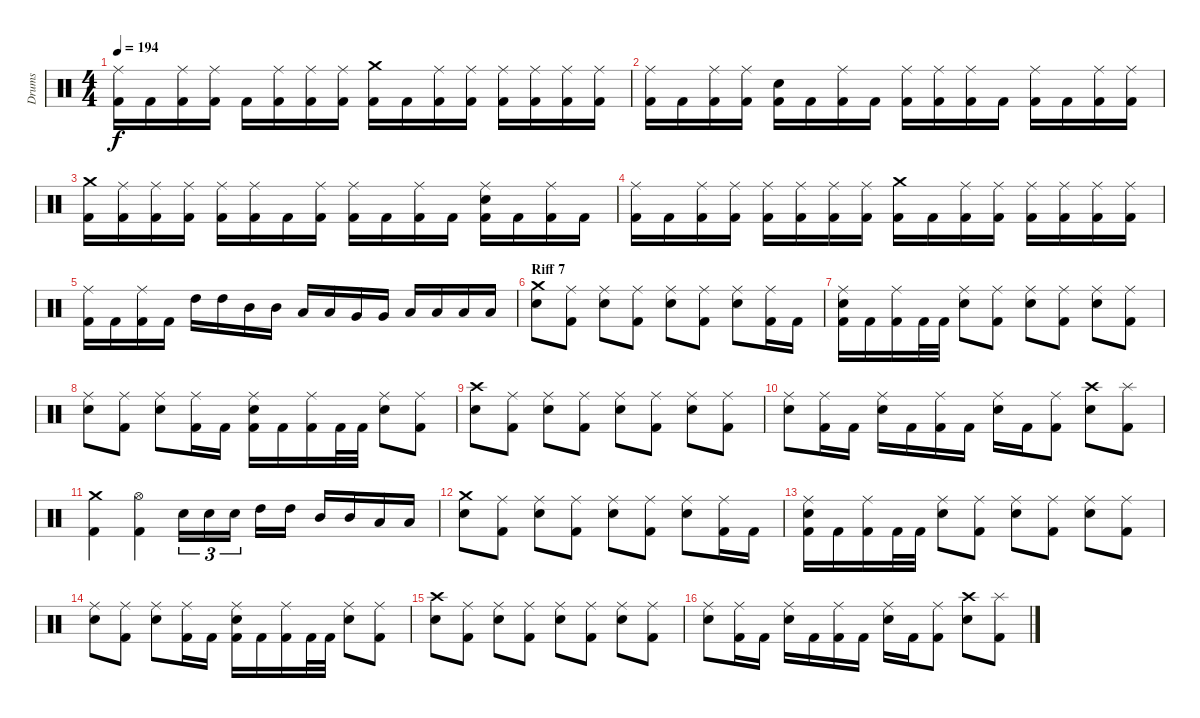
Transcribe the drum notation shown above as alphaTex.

\track ("Drums" "Drums") {instrument percussion}
\staff {score}
\articulation defaults
\ts (4 4)
\tempo 194
\clef neutral
\ks c
("Ride (middle)" "Kick (hit) 2").16{dy f} "Kick (hit) 2".16 ("Ride (middle)" "Kick (hit) 2").16 ("Ride (middle)" "Kick (hit) 2").16 "Kick (hit) 2".16 ("Ride (middle)" "Kick (hit) 2").16 ("Ride (middle)" "Kick (hit) 2").16 ("Ride (middle)" "Kick (hit) 2").16 ("Crash medium (hit)" "Kick (hit) 2").16 "Kick (hit) 2".16 ("Ride (middle)" "Kick (hit) 2").16 ("Ride (middle)" "Kick (hit) 2").16 ("Ride (middle)" "Kick (hit) 2").16 ("Ride (middle)" "Kick (hit) 2").16 ("Ride (middle)" "Kick (hit) 2").16 ("Ride (middle)" "Kick (hit) 2").16 |
("Ride (middle)" "Kick (hit) 2").16 "Kick (hit) 2".16 ("Ride (middle)" "Kick (hit) 2").16 ("Ride (middle)" "Kick (hit) 2").16 ("Electric Snare (hit)" "Kick (hit) 2").16 "Kick (hit) 2".16 ("Ride (middle)" "Kick (hit) 2").16 "Kick (hit) 2".16 ("Ride (middle)" "Kick (hit) 2").16 ("Ride (middle)" "Kick (hit) 2").16 ("Ride (middle)" "Kick (hit) 2").16 "Kick (hit) 2".16 ("Ride (middle)" "Kick (hit) 2").16 "Kick (hit) 2".16 ("Ride (middle)" "Kick (hit) 2").16 ("Ride (middle)" "Kick (hit) 2").16 |
("Crash medium (hit)" "Kick (hit) 2").16 ("Ride (middle)" "Kick (hit) 2").16 ("Ride (middle)" "Kick (hit) 2").16 ("Ride (middle)" "Kick (hit) 2").16 ("Ride (middle)" "Kick (hit) 2").16 ("Ride (middle)" "Kick (hit) 2").16 "Kick (hit) 2".16 ("Ride (middle)" "Kick (hit) 2").16 ("Ride (middle)" "Kick (hit) 2").16 "Kick (hit) 2".16 ("Ride (middle)" "Kick (hit) 2").16 "Kick (hit) 2".16 ("Ride (middle)" "Electric Snare (hit)" "Kick (hit) 2").16 "Kick (hit) 2".16 ("Ride (middle)" "Kick (hit) 2").16 "Kick (hit) 2".16 |
("Ride (middle)" "Kick (hit) 2").16 "Kick (hit) 2".16 ("Ride (middle)" "Kick (hit) 2").16 ("Ride (middle)" "Kick (hit) 2").16 ("Ride (middle)" "Kick (hit) 2").16 ("Ride (middle)" "Kick (hit) 2").16 ("Ride (middle)" "Kick (hit) 2").16 ("Ride (middle)" "Kick (hit) 2").16 ("Crash medium (hit)" "Kick (hit) 2").16 "Kick (hit) 2".16 ("Ride (middle)" "Kick (hit) 2").16 ("Ride (middle)" "Kick (hit) 2").16 ("Ride (middle)" "Kick (hit) 2").16 ("Ride (middle)" "Kick (hit) 2").16 ("Ride (middle)" "Kick (hit) 2").16 ("Ride (middle)" "Kick (hit) 2").16 |
("Ride (middle)" "Kick (hit) 2").16 "Kick (hit) 2".16 ("Ride (middle)" "Kick (hit) 2").16 "Kick (hit) 2".16 "High Tom (hit)".16 "High Tom (hit)".16 "Mid Tom (hit)".16 "Mid Tom (hit)".16 "Low Tom (hit)".16 "Low Tom (hit)".16 "Very Low Tom (hit)".16 "Very Low Tom (hit)".16 "Low Floor Tom (hit)".16 "Low Floor Tom (hit)".16 "Low Floor Tom (hit)".16 "Low Floor Tom (hit)".16 |
\section ("" "Riff 7")
("Crash medium (hit)" "Electric Snare (hit)").8 ("Ride (middle)" "Kick (hit) 2").8 ("Ride (middle)" "Electric Snare (hit)").8 ("Ride (middle)" "Kick (hit) 2").8 ("Ride (middle)" "Electric Snare (hit)").8 ("Ride (middle)" "Kick (hit) 2").8 ("Ride (middle)" "Electric Snare (hit)").8 ("Ride (middle)" "Kick (hit) 2").16 "Kick (hit) 2".16 |
("Ride (middle)" "Electric Snare (hit)" "Kick (hit) 2").16 "Kick (hit) 2".16 ("Ride (middle)" "Kick (hit) 2").16 "Kick (hit) 2".32 "Kick (hit) 2".32 ("Ride (middle)" "Electric Snare (hit)").8 ("Ride (middle)" "Kick (hit) 2").8 ("Ride (middle)" "Electric Snare (hit)").8 ("Ride (middle)" "Kick (hit) 2").8 ("Ride (middle)" "Electric Snare (hit)").8 ("Ride (middle)" "Kick (hit) 2").8 |
("Ride (middle)" "Electric Snare (hit)").8 ("Ride (middle)" "Kick (hit) 2").8 ("Ride (middle)" "Electric Snare (hit)").8 ("Ride (middle)" "Kick (hit) 2").16 "Kick (hit) 2".16 ("Ride (middle)" "Electric Snare (hit)" "Kick (hit) 2").16 "Kick (hit) 2".16 ("Ride (middle)" "Kick (hit) 2").16 "Kick (hit) 2".32 "Kick (hit) 2".32 ("Ride (middle)" "Electric Snare (hit)").8 ("Ride (middle)" "Kick (hit) 2").8 |
("Crash high (hit)" "Electric Snare (hit)").8 ("Ride (middle)" "Kick (hit) 2").8 ("Ride (middle)" "Electric Snare (hit)").8 ("Ride (middle)" "Kick (hit) 2").8 ("Ride (middle)" "Electric Snare (hit)").8 ("Ride (middle)" "Kick (hit) 2").8 ("Ride (middle)" "Electric Snare (hit)").8 ("Ride (middle)" "Kick (hit) 2").8 |
("Ride (middle)" "Electric Snare (hit)").8 ("Ride (middle)" "Kick (hit) 2").16 "Kick (hit) 2".16 ("Ride (middle)" "Electric Snare (hit)").16 "Kick (hit) 2".16 ("Ride (middle)" "Kick (hit) 2").16 "Kick (hit) 2".16 ("Ride (middle)" "Electric Snare (hit)").16 "Kick (hit) 2".16 ("Ride (middle)" "Kick (hit) 2").8 ("Crash high (hit)" "Electric Snare (hit)").8 ("Splash (hit)" "Kick (hit) 2").8 |
("Crash medium (hit)" "Kick (hit) 2").4 ("Hi-Hat (open)" "Kick (hit) 2").4 "Electric Snare (hit)".16{tu (3 2)} "Electric Snare (hit)".16{tu (3 2)} "Electric Snare (hit)".16{tu (3 2)} "High Tom (hit)".16 "High Tom (hit)".16 "Mid Tom (hit)".16 "Mid Tom (hit)".16 "Low Tom (hit)".16 "Low Tom (hit)".16 |
("Crash medium (hit)" "Electric Snare (hit)").8 ("Ride (middle)" "Kick (hit) 2").8 ("Ride (middle)" "Electric Snare (hit)").8 ("Ride (middle)" "Kick (hit) 2").8 ("Ride (middle)" "Electric Snare (hit)").8 ("Ride (middle)" "Kick (hit) 2").8 ("Ride (middle)" "Electric Snare (hit)").8 ("Ride (middle)" "Kick (hit) 2").16 "Kick (hit) 2".16 |
("Ride (middle)" "Electric Snare (hit)" "Kick (hit) 2").16 "Kick (hit) 2".16 ("Ride (middle)" "Kick (hit) 2").16 "Kick (hit) 2".32 "Kick (hit) 2".32 ("Ride (middle)" "Electric Snare (hit)").8 ("Ride (middle)" "Kick (hit) 2").8 ("Ride (middle)" "Electric Snare (hit)").8 ("Ride (middle)" "Kick (hit) 2").8 ("Ride (middle)" "Electric Snare (hit)").8 ("Ride (middle)" "Kick (hit) 2").8 |
("Ride (middle)" "Electric Snare (hit)").8 ("Ride (middle)" "Kick (hit) 2").8 ("Ride (middle)" "Electric Snare (hit)").8 ("Ride (middle)" "Kick (hit) 2").16 "Kick (hit) 2".16 ("Ride (middle)" "Electric Snare (hit)" "Kick (hit) 2").16 "Kick (hit) 2".16 ("Ride (middle)" "Kick (hit) 2").16 "Kick (hit) 2".32 "Kick (hit) 2".32 ("Ride (middle)" "Electric Snare (hit)").8 ("Ride (middle)" "Kick (hit) 2").8 |
("Crash high (hit)" "Electric Snare (hit)").8 ("Ride (middle)" "Kick (hit) 2").8 ("Ride (middle)" "Electric Snare (hit)").8 ("Ride (middle)" "Kick (hit) 2").8 ("Ride (middle)" "Electric Snare (hit)").8 ("Ride (middle)" "Kick (hit) 2").8 ("Ride (middle)" "Electric Snare (hit)").8 ("Ride (middle)" "Kick (hit) 2").8 |
("Ride (middle)" "Electric Snare (hit)").8 ("Ride (middle)" "Kick (hit) 2").16 "Kick (hit) 2".16 ("Ride (middle)" "Electric Snare (hit)").16 "Kick (hit) 2".16 ("Ride (middle)" "Kick (hit) 2").16 "Kick (hit) 2".16 ("Ride (middle)" "Electric Snare (hit)").16 "Kick (hit) 2".16 ("Ride (middle)" "Kick (hit) 2").8 ("Crash high (hit)" "Electric Snare (hit)").8 ("Splash (hit)" "Kick (hit) 2").8
